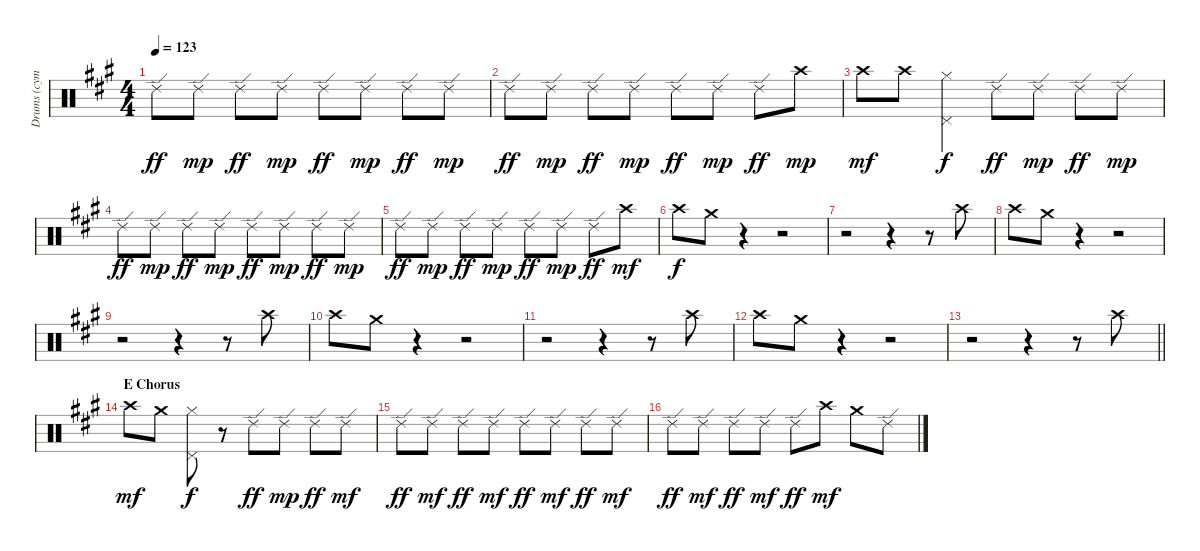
\track ("Drums (cymbals)" "Drums (cym") {instrument percussion}
\staff {score}
\articulation defaults
\ts (4 4)
\tempo 123
\clef neutral
\ks a "Ride (edge) 2".8{dy ff} "Ride (edge) 2".8{dy mp} "Ride (edge) 2".8{dy ff} "Ride (edge) 2".8{dy mp} "Ride (edge) 2".8{dy ff} "Ride (edge) 2".8{dy mp} "Ride (edge) 2".8{dy ff} "Ride (edge) 2".8{dy mp}
|
"Ride (edge) 2".8{dy ff} "Ride (edge) 2".8{dy mp} "Ride (edge) 2".8{dy ff} "Ride (edge) 2".8{dy mp} "Ride (edge) 2".8{dy ff} "Ride (edge) 2".8{dy mp} "Ride (edge) 2".8{dy ff} "Crash high (hit)".8{dy mp} |
"Crash high (hit)".8{dy mf} "Crash high (hit)".8 ("Hi-Hat (closed)" "Pedal Hi-Hat (hit)").4{dy f} "Ride (edge) 2".8{dy ff} "Ride (edge) 2".8{dy mp} "Ride (edge) 2".8{dy ff} "Ride (edge) 2".8{dy mp} |
"Ride (edge) 2".8{dy ff} "Ride (edge) 2".8{dy mp} "Ride (edge) 2".8{dy ff} "Ride (edge) 2".8{dy mp} "Ride (edge) 2".8{dy ff} "Ride (edge) 2".8{dy mp} "Ride (edge) 2".8{dy ff} "Ride (edge) 2".8{dy mp} |
"Ride (edge) 2".8{dy ff} "Ride (edge) 2".8{dy mp} "Ride (edge) 2".8{dy ff} "Ride (edge) 2".8{dy mp} "Ride (edge) 2".8{dy ff} "Ride (edge) 2".8{dy mp} "Ride (edge) 2".8{dy ff} "Crash high (hit)".8{dy mf} |
"Crash high (hit)".8{dy f} "Crash medium (hit)".8 r.4 r.2 |
r.2 r.4 r.8 "Crash high (hit)".8 |
"Crash high (hit)".8 "Crash medium (hit)".8 r.4 r.2 |
r.2 r.4 r.8 "Crash high (hit)".8 |
"Crash high (hit)".8 "Crash medium (hit)".8 r.4 r.2 |
r.2 r.4 r.8 "Crash high (hit)".8 |
"Crash high (hit)".8 "Crash medium (hit)".8 r.4 r.2 |
\barLineRight lightlight
r.2 r.4 r.8 "Crash high (hit)".8 |
\section ("" "E Chorus")
"Crash high (hit)".8{dy mf} "Crash medium (hit)".8 ("Hi-Hat (closed)" "Pedal Hi-Hat (hit)").8{dy f} r.8 "Ride (edge) 2".8{dy ff} "Ride (edge) 2".8{dy mp} "Ride (edge) 2".8{dy ff} "Ride (edge) 2".8{dy mf} |
"Ride (edge) 2".8{dy ff} "Ride (edge) 2".8{dy mf} "Ride (edge) 2".8{dy ff} "Ride (edge) 2".8{dy mf} "Ride (edge) 2".8{dy ff} "Ride (edge) 2".8{dy mf} "Ride (edge) 2".8{dy ff} "Ride (edge) 2".8{dy mf} |
"Ride (edge) 2".8{dy ff} "Ride (edge) 2".8{dy mf} "Ride (edge) 2".8{dy ff} "Ride (edge) 2".8{dy mf} "Ride (edge) 2".8{dy ff} "Crash high (hit)".8{dy mf} "Crash medium (hit)".8 "Ride (edge) 2".8
